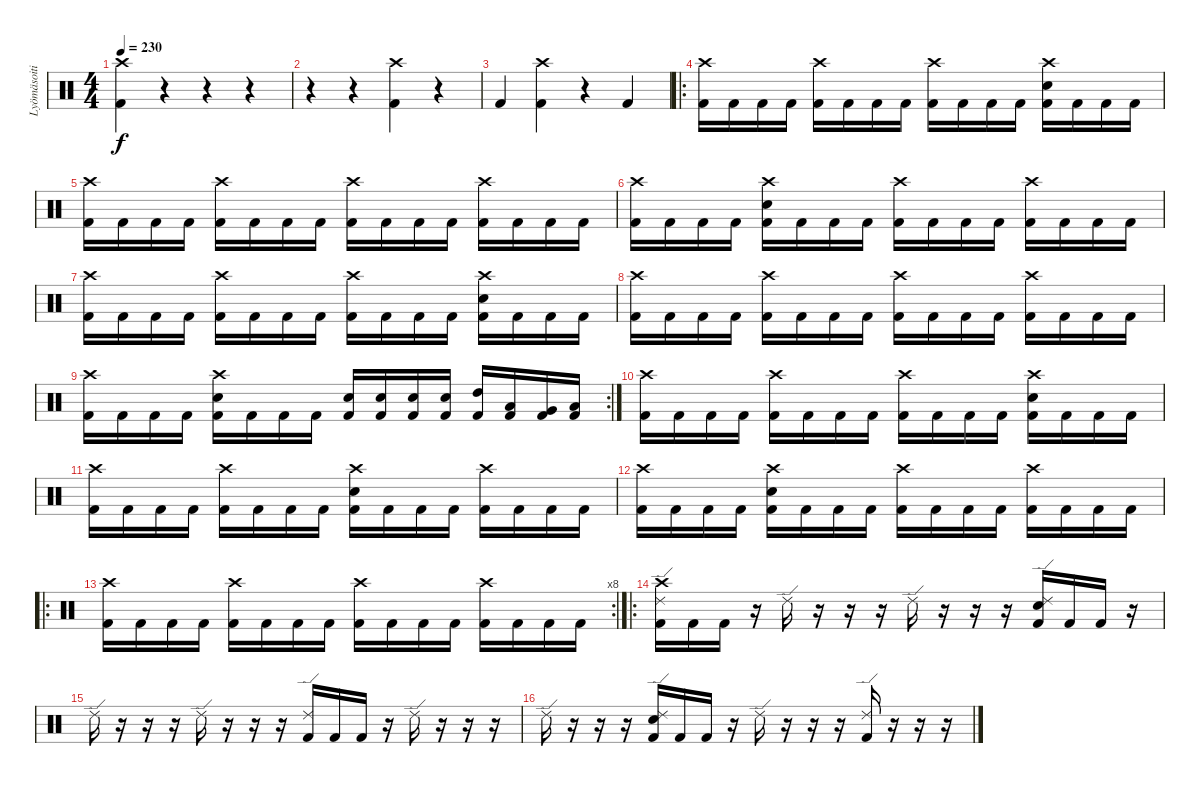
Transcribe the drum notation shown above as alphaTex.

\track ("Lyömäsoitin" "Lyömäsoiti") {instrument percussion}
\staff {score}
\articulation defaults
\ts (4 4)
\tempo 230
\clef neutral
\ks c
("Crash high (hit)" "Kick (hit) 2").4{dy f} r.4 r.4 r.4 |
r.4 r.4 ("Crash high (hit)" "Kick (hit) 2").4 r.4 |
"Kick (hit) 2".4 ("Crash high (hit)" "Kick (hit) 2").4 r.4 "Kick (hit) 2".4 |
\ro
("Crash high (hit)" "Kick (hit) 2").16 "Kick (hit) 2".16 "Kick (hit) 2".16 "Kick (hit) 2".16 ("Crash high (hit)" "Kick (hit) 2").16 "Kick (hit) 2".16 "Kick (hit) 2".16 "Kick (hit) 2".16 ("Crash high (hit)" "Kick (hit) 2").16 "Kick (hit) 2".16 "Kick (hit) 2".16 "Kick (hit) 2".16 ("Crash high (hit)" "Snare (hit) 2" "Kick (hit) 2").16 "Kick (hit) 2".16 "Kick (hit) 2".16 "Kick (hit) 2".16 |
("Crash high (hit)" "Kick (hit) 2").16 "Kick (hit) 2".16 "Kick (hit) 2".16 "Kick (hit) 2".16 ("Crash high (hit)" "Kick (hit) 2").16 "Kick (hit) 2".16 "Kick (hit) 2".16 "Kick (hit) 2".16 ("Crash high (hit)" "Kick (hit) 2").16 "Kick (hit) 2".16 "Kick (hit) 2".16 "Kick (hit) 2".16 ("Crash high (hit)" "Kick (hit) 2").16 "Kick (hit) 2".16 "Kick (hit) 2".16 "Kick (hit) 2".16 |
("Crash high (hit)" "Kick (hit) 2").16 "Kick (hit) 2".16 "Kick (hit) 2".16 "Kick (hit) 2".16 ("Crash high (hit)" "Snare (hit) 2" "Kick (hit) 2").16 "Kick (hit) 2".16 "Kick (hit) 2".16 "Kick (hit) 2".16 ("Crash high (hit)" "Kick (hit) 2").16 "Kick (hit) 2".16 "Kick (hit) 2".16 "Kick (hit) 2".16 ("Crash high (hit)" "Kick (hit) 2").16 "Kick (hit) 2".16 "Kick (hit) 2".16 "Kick (hit) 2".16 |
("Crash high (hit)" "Kick (hit) 2").16 "Kick (hit) 2".16 "Kick (hit) 2".16 "Kick (hit) 2".16 ("Crash high (hit)" "Kick (hit) 2").16 "Kick (hit) 2".16 "Kick (hit) 2".16 "Kick (hit) 2".16 ("Crash high (hit)" "Kick (hit) 2").16 "Kick (hit) 2".16 "Kick (hit) 2".16 "Kick (hit) 2".16 ("Crash high (hit)" "Snare (hit) 2" "Kick (hit) 2").16 "Kick (hit) 2".16 "Kick (hit) 2".16 "Kick (hit) 2".16 |
("Crash high (hit)" "Kick (hit) 2").16 "Kick (hit) 2".16 "Kick (hit) 2".16 "Kick (hit) 2".16 ("Crash high (hit)" "Kick (hit) 2").16 "Kick (hit) 2".16 "Kick (hit) 2".16 "Kick (hit) 2".16 ("Crash high (hit)" "Kick (hit) 2").16 "Kick (hit) 2".16 "Kick (hit) 2".16 "Kick (hit) 2".16 ("Crash high (hit)" "Kick (hit) 2").16 "Kick (hit) 2".16 "Kick (hit) 2".16 "Kick (hit) 2".16 |
\rc 2
("Crash high (hit)" "Kick (hit) 2").16 "Kick (hit) 2".16 "Kick (hit) 2".16 "Kick (hit) 2".16 ("Crash high (hit)" "Snare (hit) 2" "Kick (hit) 2").16 "Kick (hit) 2".16 "Kick (hit) 2".16 "Kick (hit) 2".16 ("Snare (hit) 2" "Kick (hit) 2").16 ("Snare (hit) 2" "Kick (hit) 2").16 ("Snare (hit) 2" "Kick (hit) 2").16 ("Snare (hit) 2" "Kick (hit) 2").16 ("High Tom (hit)" "Kick (hit) 2").16 ("Low Tom (hit)" "Kick (hit) 2").16 ("Very Low Tom (hit)" "Kick (hit) 2").16 ("Low Floor Tom (hit)" "Kick (hit) 2").16 |
("Crash high (hit)" "Kick (hit) 2").16 "Kick (hit) 2".16 "Kick (hit) 2".16 "Kick (hit) 2".16 ("Crash high (hit)" "Kick (hit) 2").16 "Kick (hit) 2".16 "Kick (hit) 2".16 "Kick (hit) 2".16 ("Crash high (hit)" "Kick (hit) 2").16 "Kick (hit) 2".16 "Kick (hit) 2".16 "Kick (hit) 2".16 ("Crash high (hit)" "Snare (hit) 2" "Kick (hit) 2").16 "Kick (hit) 2".16 "Kick (hit) 2".16 "Kick (hit) 2".16 |
("Crash high (hit)" "Kick (hit) 2").16 "Kick (hit) 2".16 "Kick (hit) 2".16 "Kick (hit) 2".16 ("Crash high (hit)" "Kick (hit) 2").16 "Kick (hit) 2".16 "Kick (hit) 2".16 "Kick (hit) 2".16 ("Crash high (hit)" "Snare (hit) 2" "Kick (hit) 2").16 "Kick (hit) 2".16 "Kick (hit) 2".16 "Kick (hit) 2".16 ("Crash high (hit)" "Kick (hit) 2").16 "Kick (hit) 2".16 "Kick (hit) 2".16 "Kick (hit) 2".16 |
("Crash high (hit)" "Kick (hit) 2").16 "Kick (hit) 2".16 "Kick (hit) 2".16 "Kick (hit) 2".16 ("Crash high (hit)" "Snare (hit) 2" "Kick (hit) 2").16 "Kick (hit) 2".16 "Kick (hit) 2".16 "Kick (hit) 2".16 ("Crash high (hit)" "Kick (hit) 2").16 "Kick (hit) 2".16 "Kick (hit) 2".16 "Kick (hit) 2".16 ("Crash high (hit)" "Kick (hit) 2").16 "Kick (hit) 2".16 "Kick (hit) 2".16 "Kick (hit) 2".16 |
\ro
\rc 8
("Crash high (hit)" "Kick (hit) 2").16 "Kick (hit) 2".16 "Kick (hit) 2".16 "Kick (hit) 2".16 ("Crash high (hit)" "Kick (hit) 2").16 "Kick (hit) 2".16 "Kick (hit) 2".16 "Kick (hit) 2".16 ("Crash high (hit)" "Kick (hit) 2").16 "Kick (hit) 2".16 "Kick (hit) 2".16 "Kick (hit) 2".16 ("Crash high (hit)" "Kick (hit) 2").16 "Kick (hit) 2".16 "Kick (hit) 2".16 "Kick (hit) 2".16 |
\ro
("Crash high (hit)" "Ride (edge) 2" "Kick (hit) 2").16 "Kick (hit) 2".16 "Kick (hit) 2".16 r.16 "Ride (edge) 2".16 r.16 r.16 r.16 "Ride (edge) 2".16 r.16 r.16 r.16 ("Ride (edge) 2" "Snare (hit) 2" "Kick (hit) 2").16 "Kick (hit) 2".16 "Kick (hit) 2".16 r.16 |
"Ride (edge) 2".16 r.16 r.16 r.16 "Ride (edge) 2".16 r.16 r.16 r.16 ("Ride (edge) 2" "Kick (hit) 2").16 "Kick (hit) 2".16 "Kick (hit) 2".16 r.16 "Ride (edge) 2".16 r.16 r.16 r.16 |
"Ride (edge) 2".16 r.16 r.16 r.16 ("Ride (edge) 2" "Snare (hit) 2" "Kick (hit) 2").16 "Kick (hit) 2".16 "Kick (hit) 2".16 r.16 "Ride (edge) 2".16 r.16 r.16 r.16 ("Ride (edge) 2" "Kick (hit) 2").16 r.16 r.16 r.16
